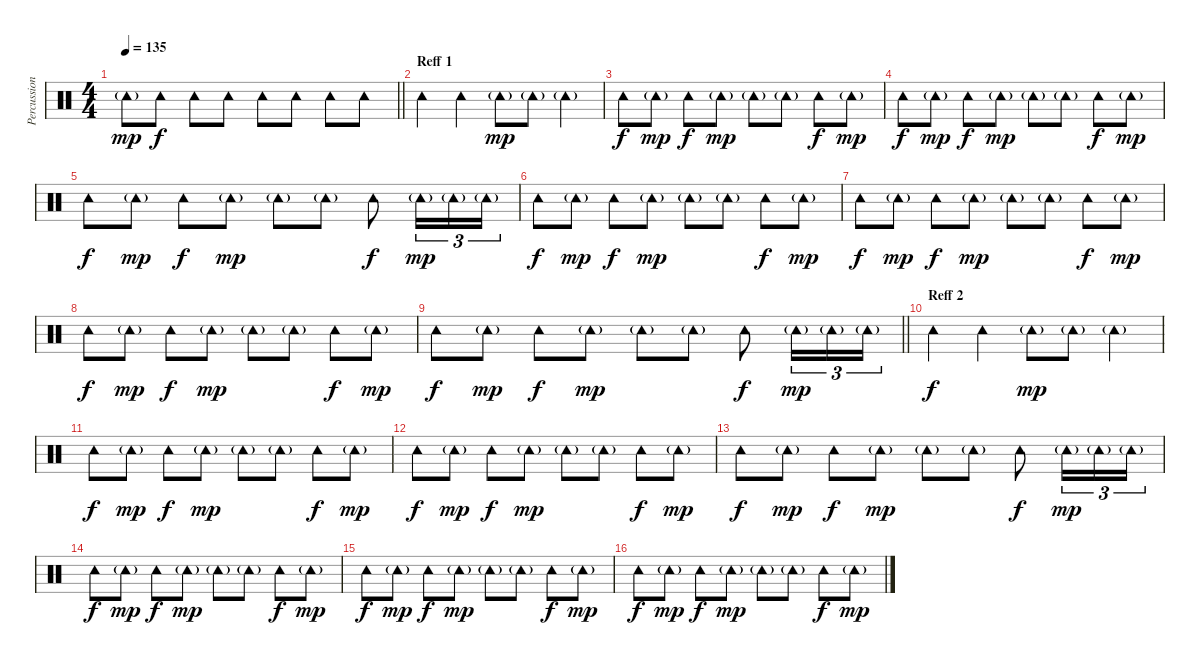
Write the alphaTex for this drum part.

\track ("Percussion 2" "Percussion") {instrument percussion}
\staff {score}
\articulation defaults
\ts (4 4)
\tempo 135
\clef neutral
\barLineRight lightlight
\ks c "Tambourine (hit)"{g}.8{dy mp} "Tambourine (hit)".8{dy f} "Tambourine (hit)".8 "Tambourine (hit)".8 "Tambourine (hit)".8 "Tambourine (hit)".8 "Tambourine (hit)".8 "Tambourine (hit)".8
|
\section ("" "Reff 1")
"Tambourine (hit)".4 "Tambourine (hit)".4 "Tambourine (hit)"{g}.8{dy mp} "Tambourine (hit)"{g}.8 "Tambourine (hit)"{g}.4 |
"Tambourine (hit)".8{dy f} "Tambourine (hit)"{g}.8{dy mp} "Tambourine (hit)".8{dy f} "Tambourine (hit)"{g}.8{dy mp} "Tambourine (hit)"{g}.8 "Tambourine (hit)"{g}.8 "Tambourine (hit)".8{dy f} "Tambourine (hit)"{g}.8{dy mp} |
"Tambourine (hit)".8{dy f} "Tambourine (hit)"{g}.8{dy mp} "Tambourine (hit)".8{dy f} "Tambourine (hit)"{g}.8{dy mp} "Tambourine (hit)"{g}.8 "Tambourine (hit)"{g}.8 "Tambourine (hit)".8{dy f} "Tambourine (hit)"{g}.8{dy mp} |
"Tambourine (hit)".8{dy f} "Tambourine (hit)"{g}.8{dy mp} "Tambourine (hit)".8{dy f} "Tambourine (hit)"{g}.8{dy mp} "Tambourine (hit)"{g}.8 "Tambourine (hit)"{g}.8 "Tambourine (hit)".8{dy f} "Tambourine (hit)"{g}.16{tu (3 2) dy mp} "Tambourine (hit)"{g}.16{tu (3 2)} "Tambourine (hit)"{g}.16{tu (3 2)} |
"Tambourine (hit)".8{dy f} "Tambourine (hit)"{g}.8{dy mp} "Tambourine (hit)".8{dy f} "Tambourine (hit)"{g}.8{dy mp} "Tambourine (hit)"{g}.8 "Tambourine (hit)"{g}.8 "Tambourine (hit)".8{dy f} "Tambourine (hit)"{g}.8{dy mp} |
"Tambourine (hit)".8{dy f} "Tambourine (hit)"{g}.8{dy mp} "Tambourine (hit)".8{dy f} "Tambourine (hit)"{g}.8{dy mp} "Tambourine (hit)"{g}.8 "Tambourine (hit)"{g}.8 "Tambourine (hit)".8{dy f} "Tambourine (hit)"{g}.8{dy mp} |
"Tambourine (hit)".8{dy f} "Tambourine (hit)"{g}.8{dy mp} "Tambourine (hit)".8{dy f} "Tambourine (hit)"{g}.8{dy mp} "Tambourine (hit)"{g}.8 "Tambourine (hit)"{g}.8 "Tambourine (hit)".8{dy f} "Tambourine (hit)"{g}.8{dy mp} |
\barLineRight lightlight "Tambourine (hit)".8{dy f} "Tambourine (hit)"{g}.8{dy mp} "Tambourine (hit)".8{dy f} "Tambourine (hit)"{g}.8{dy mp} "Tambourine (hit)"{g}.8 "Tambourine (hit)"{g}.8 "Tambourine (hit)".8{dy f} "Tambourine (hit)"{g}.16{tu (3 2) dy mp} "Tambourine (hit)"{g}.16{tu (3 2)} "Tambourine (hit)"{g}.16{tu (3 2)}
|
\section ("" "Reff 2")
"Tambourine (hit)".4{dy f} "Tambourine (hit)".4 "Tambourine (hit)"{g}.8{dy mp} "Tambourine (hit)"{g}.8 "Tambourine (hit)"{g}.4 |
"Tambourine (hit)".8{dy f} "Tambourine (hit)"{g}.8{dy mp} "Tambourine (hit)".8{dy f} "Tambourine (hit)"{g}.8{dy mp} "Tambourine (hit)"{g}.8 "Tambourine (hit)"{g}.8 "Tambourine (hit)".8{dy f} "Tambourine (hit)"{g}.8{dy mp} |
"Tambourine (hit)".8{dy f} "Tambourine (hit)"{g}.8{dy mp} "Tambourine (hit)".8{dy f} "Tambourine (hit)"{g}.8{dy mp} "Tambourine (hit)"{g}.8 "Tambourine (hit)"{g}.8 "Tambourine (hit)".8{dy f} "Tambourine (hit)"{g}.8{dy mp} |
"Tambourine (hit)".8{dy f} "Tambourine (hit)"{g}.8{dy mp} "Tambourine (hit)".8{dy f} "Tambourine (hit)"{g}.8{dy mp} "Tambourine (hit)"{g}.8 "Tambourine (hit)"{g}.8 "Tambourine (hit)".8{dy f} "Tambourine (hit)"{g}.16{tu (3 2) dy mp} "Tambourine (hit)"{g}.16{tu (3 2)} "Tambourine (hit)"{g}.16{tu (3 2)} |
"Tambourine (hit)".8{dy f} "Tambourine (hit)"{g}.8{dy mp} "Tambourine (hit)".8{dy f} "Tambourine (hit)"{g}.8{dy mp} "Tambourine (hit)"{g}.8 "Tambourine (hit)"{g}.8 "Tambourine (hit)".8{dy f} "Tambourine (hit)"{g}.8{dy mp} |
"Tambourine (hit)".8{dy f} "Tambourine (hit)"{g}.8{dy mp} "Tambourine (hit)".8{dy f} "Tambourine (hit)"{g}.8{dy mp} "Tambourine (hit)"{g}.8 "Tambourine (hit)"{g}.8 "Tambourine (hit)".8{dy f} "Tambourine (hit)"{g}.8{dy mp} |
"Tambourine (hit)".8{dy f} "Tambourine (hit)"{g}.8{dy mp} "Tambourine (hit)".8{dy f} "Tambourine (hit)"{g}.8{dy mp} "Tambourine (hit)"{g}.8 "Tambourine (hit)"{g}.8 "Tambourine (hit)".8{dy f} "Tambourine (hit)"{g}.8{dy mp}
